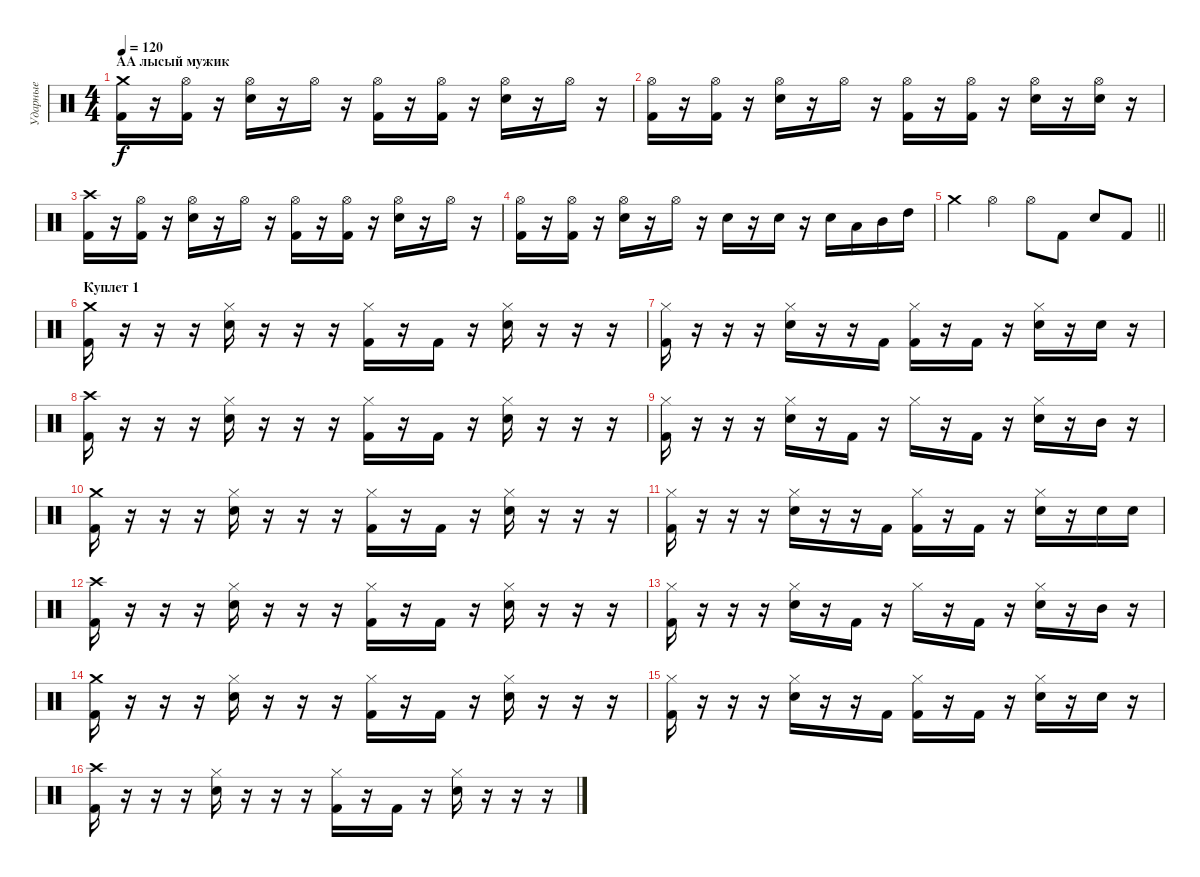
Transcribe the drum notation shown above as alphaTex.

\track ("Ударные" "Ударные") {instrument percussion}
\staff {score}
\articulation defaults
\ts (4 4)
\section ("" "АА лысый мужик")
\tempo 120
\clef neutral
\ks c
("Crash medium (hit)" "Kick (hit) 2").16{dy f} r.16 ("Hi-Hat (open)" "Kick (hit) 2").16 r.16 ("Hi-Hat (open)" "Electric Snare (hit)").16 r.16 "Hi-Hat (open)".16 r.16 ("Hi-Hat (open)" "Kick (hit) 2").16 r.16 ("Hi-Hat (open)" "Kick (hit) 2").16 r.16 ("Hi-Hat (open)" "Electric Snare (hit)").16 r.16 "Hi-Hat (open)".16 r.16 |
("Hi-Hat (open)" "Kick (hit) 2").16 r.16 ("Hi-Hat (open)" "Kick (hit) 2").16 r.16 ("Hi-Hat (open)" "Electric Snare (hit)").16 r.16 "Hi-Hat (open)".16 r.16 ("Hi-Hat (open)" "Kick (hit) 2").16 r.16 ("Hi-Hat (open)" "Kick (hit) 2").16 r.16 ("Hi-Hat (open)" "Electric Snare (hit)").16 r.16 ("Hi-Hat (open)" "Electric Snare (hit)").16 r.16 |
("Crash high (hit)" "Kick (hit) 2").16 r.16 ("Hi-Hat (open)" "Kick (hit) 2").16 r.16 ("Hi-Hat (open)" "Electric Snare (hit)").16 r.16 "Hi-Hat (open)".16 r.16 ("Hi-Hat (open)" "Kick (hit) 2").16 r.16 ("Hi-Hat (open)" "Kick (hit) 2").16 r.16 ("Hi-Hat (open)" "Electric Snare (hit)").16 r.16 "Hi-Hat (open)".16 r.16 |
("Hi-Hat (open)" "Kick (hit) 2").16 r.16 ("Hi-Hat (open)" "Kick (hit) 2").16 r.16 ("Hi-Hat (open)" "Electric Snare (hit)").16 r.16 "Hi-Hat (open)".16 r.16 "Electric Snare (hit)".16 r.16 "Electric Snare (hit)".16 r.16 "Electric Snare (hit)".16 "Low Tom (hit)".16 "Mid Tom (hit)".16 "High Tom (hit)".16 |
\barLineRight lightlight "Crash medium (hit)".4 "Hi-Hat (open)".4 "Hi-Hat (open)".8 "Kick (hit) 2".8 "Electric Snare (hit)".8 "Kick (hit) 2".8
|
\section ("" "Куплет 1")
("Kick (hit) 2" "Crash medium (hit)").16 r.16 r.16 r.16 ("Hi-Hat (closed)" "Electric Snare (hit)").16 r.16 r.16 r.16 ("Hi-Hat (closed)" "Kick (hit) 2").16 r.16 "Kick (hit) 2".16 r.16 ("Hi-Hat (closed)" "Electric Snare (hit)").16 r.16 r.16 r.16 |
("Kick (hit) 2" "Hi-Hat (closed)").16 r.16 r.16 r.16 ("Hi-Hat (closed)" "Electric Snare (hit)").16 r.16 r.16 "Kick (hit) 2".16 ("Hi-Hat (closed)" "Kick (hit) 2").16 r.16 "Kick (hit) 2".16 r.16 ("Hi-Hat (closed)" "Electric Snare (hit)").16 r.16 "Electric Snare (hit)".16 r.16 |
("Kick (hit) 2" "Crash high (hit)").16 r.16 r.16 r.16 ("Hi-Hat (closed)" "Electric Snare (hit)").16 r.16 r.16 r.16 ("Hi-Hat (closed)" "Kick (hit) 2").16 r.16 "Kick (hit) 2".16 r.16 ("Hi-Hat (closed)" "Electric Snare (hit)").16 r.16 r.16 r.16 |
("Kick (hit) 2" "Hi-Hat (closed)").16 r.16 r.16 r.16 ("Hi-Hat (closed)" "Electric Snare (hit)").16 r.16 "Kick (hit) 2".16 r.16 "Hi-Hat (closed)".16 r.16 "Kick (hit) 2".16 r.16 ("Hi-Hat (closed)" "Electric Snare (hit)").16 r.16 "Mid Tom (hit)".16 r.16 |
("Kick (hit) 2" "Crash medium (hit)").16 r.16 r.16 r.16 ("Hi-Hat (closed)" "Electric Snare (hit)").16 r.16 r.16 r.16 ("Hi-Hat (closed)" "Kick (hit) 2").16 r.16 "Kick (hit) 2".16 r.16 ("Hi-Hat (closed)" "Electric Snare (hit)").16 r.16 r.16 r.16 |
("Kick (hit) 2" "Hi-Hat (closed)").16 r.16 r.16 r.16 ("Hi-Hat (closed)" "Electric Snare (hit)").16 r.16 r.16 "Kick (hit) 2".16 ("Hi-Hat (closed)" "Kick (hit) 2").16 r.16 "Kick (hit) 2".16 r.16 ("Hi-Hat (closed)" "Electric Snare (hit)").16 r.16 "Electric Snare (hit)".16 "Electric Snare (hit)".16 |
("Kick (hit) 2" "Crash high (hit)").16 r.16 r.16 r.16 ("Hi-Hat (closed)" "Electric Snare (hit)").16 r.16 r.16 r.16 ("Hi-Hat (closed)" "Kick (hit) 2").16 r.16 "Kick (hit) 2".16 r.16 ("Hi-Hat (closed)" "Electric Snare (hit)").16 r.16 r.16 r.16 |
("Kick (hit) 2" "Hi-Hat (closed)").16 r.16 r.16 r.16 ("Hi-Hat (closed)" "Electric Snare (hit)").16 r.16 "Kick (hit) 2".16 r.16 "Hi-Hat (closed)".16 r.16 "Kick (hit) 2".16 r.16 ("Hi-Hat (closed)" "Electric Snare (hit)").16 r.16 "Mid Tom (hit)".16 r.16 |
("Kick (hit) 2" "Crash medium (hit)").16 r.16 r.16 r.16 ("Hi-Hat (closed)" "Electric Snare (hit)").16 r.16 r.16 r.16 ("Hi-Hat (closed)" "Kick (hit) 2").16 r.16 "Kick (hit) 2".16 r.16 ("Hi-Hat (closed)" "Electric Snare (hit)").16 r.16 r.16 r.16 |
("Kick (hit) 2" "Hi-Hat (closed)").16 r.16 r.16 r.16 ("Hi-Hat (closed)" "Electric Snare (hit)").16 r.16 r.16 "Kick (hit) 2".16 ("Hi-Hat (closed)" "Kick (hit) 2").16 r.16 "Kick (hit) 2".16 r.16 ("Hi-Hat (closed)" "Electric Snare (hit)").16 r.16 "Electric Snare (hit)".16 r.16 |
("Kick (hit) 2" "Crash high (hit)").16 r.16 r.16 r.16 ("Hi-Hat (closed)" "Electric Snare (hit)").16 r.16 r.16 r.16 ("Hi-Hat (closed)" "Kick (hit) 2").16 r.16 "Kick (hit) 2".16 r.16 ("Hi-Hat (closed)" "Electric Snare (hit)").16 r.16 r.16 r.16
